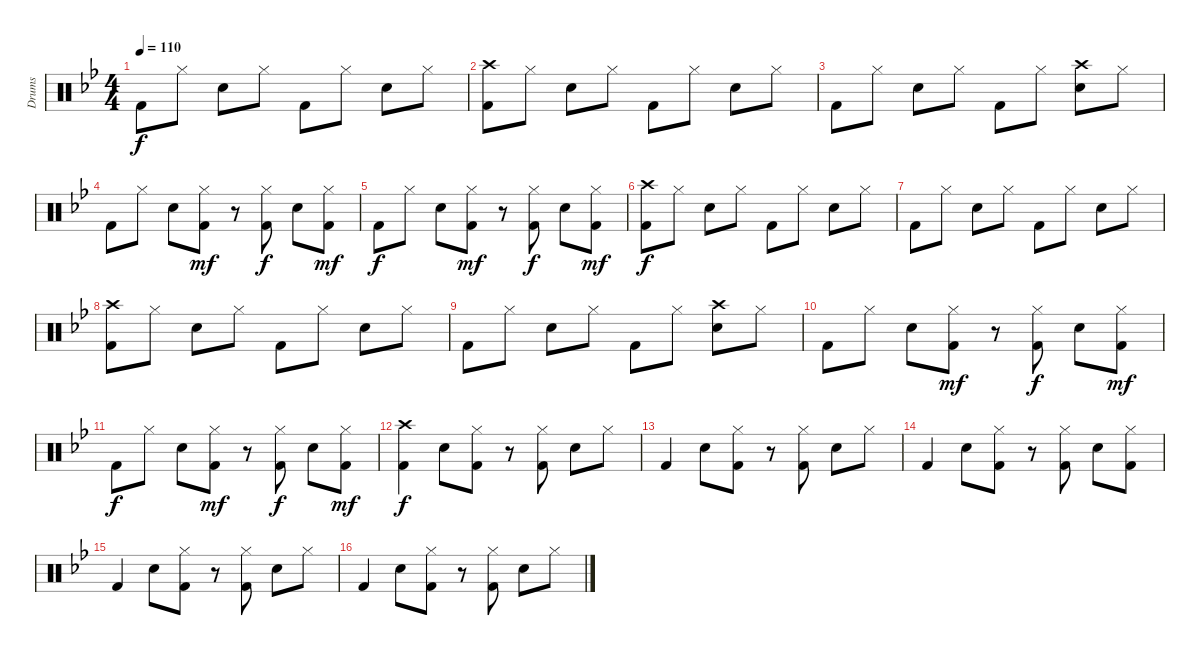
\track ("Drums" "Drums") {instrument percussion}
\staff {score}
\articulation defaults
\ts (4 4)
\tempo 110
\clef neutral
\ks gminor "Kick (hit) 2".8{dy f} "Hi-Hat (closed)".8 "Snare (hit) 2".8 "Hi-Hat (closed)".8 "Kick (hit) 2".8 "Hi-Hat (closed)".8 "Snare (hit) 2".8 "Hi-Hat (closed)".8
|
("Crash high (hit)" "Kick (hit) 2").8 "Hi-Hat (closed)".8 "Snare (hit) 2".8 "Hi-Hat (closed)".8 "Kick (hit) 2".8 "Hi-Hat (closed)".8 "Snare (hit) 2".8 "Hi-Hat (closed)".8 |
"Kick (hit) 2".8 "Hi-Hat (closed)".8 "Snare (hit) 2".8 "Hi-Hat (closed)".8 "Kick (hit) 2".8 "Hi-Hat (closed)".8 ("Crash high (hit)" "Snare (hit) 2").8 "Hi-Hat (closed)".8 |
"Kick (hit) 2".8 "Hi-Hat (closed)".8 "Snare (hit) 2".8 ("Hi-Hat (closed)" "Kick (hit) 2").8{dy mf} r.8 ("Hi-Hat (closed)" "Kick (hit) 2").8{dy f} "Snare (hit) 2".8 ("Hi-Hat (closed)" "Kick (hit) 2").8{dy mf} |
"Kick (hit) 2".8{dy f} "Hi-Hat (closed)".8 "Snare (hit) 2".8 ("Hi-Hat (closed)" "Kick (hit) 2").8{dy mf} r.8 ("Hi-Hat (closed)" "Kick (hit) 2").8{dy f} "Snare (hit) 2".8 ("Hi-Hat (closed)" "Kick (hit) 2").8{dy mf} |
("Crash high (hit)" "Kick (hit) 2").8{dy f} "Hi-Hat (closed)".8 "Snare (hit) 2".8 "Hi-Hat (closed)".8 "Kick (hit) 2".8 "Hi-Hat (closed)".8 "Snare (hit) 2".8 "Hi-Hat (closed)".8 |
"Kick (hit) 2".8 "Hi-Hat (closed)".8 "Snare (hit) 2".8 "Hi-Hat (closed)".8 "Kick (hit) 2".8 "Hi-Hat (closed)".8 "Snare (hit) 2".8 "Hi-Hat (closed)".8 |
("Crash high (hit)" "Kick (hit) 2").8 "Hi-Hat (closed)".8 "Snare (hit) 2".8 "Hi-Hat (closed)".8 "Kick (hit) 2".8 "Hi-Hat (closed)".8 "Snare (hit) 2".8 "Hi-Hat (closed)".8 |
"Kick (hit) 2".8 "Hi-Hat (closed)".8 "Snare (hit) 2".8 "Hi-Hat (closed)".8 "Kick (hit) 2".8 "Hi-Hat (closed)".8 ("Crash high (hit)" "Snare (hit) 2").8 "Hi-Hat (closed)".8 |
"Kick (hit) 2".8 "Hi-Hat (closed)".8 "Snare (hit) 2".8 ("Hi-Hat (closed)" "Kick (hit) 2").8{dy mf} r.8 ("Hi-Hat (closed)" "Kick (hit) 2").8{dy f} "Snare (hit) 2".8 ("Hi-Hat (closed)" "Kick (hit) 2").8{dy mf} |
"Kick (hit) 2".8{dy f} "Hi-Hat (closed)".8 "Snare (hit) 2".8 ("Hi-Hat (closed)" "Kick (hit) 2").8{dy mf} r.8 ("Hi-Hat (closed)" "Kick (hit) 2").8{dy f} "Snare (hit) 2".8 ("Hi-Hat (closed)" "Kick (hit) 2").8{dy mf} |
("Crash high (hit)" "Kick (hit) 2").4{dy f} "Snare (hit) 2".8 ("Hi-Hat (closed)" "Kick (hit) 2").8 r.8 ("Hi-Hat (closed)" "Kick (hit) 2").8 "Snare (hit) 2".8 "Hi-Hat (closed)".8 |
"Kick (hit) 2".4 "Snare (hit) 2".8 ("Hi-Hat (closed)" "Kick (hit) 2").8 r.8 ("Hi-Hat (closed)" "Kick (hit) 2").8 "Snare (hit) 2".8 "Hi-Hat (closed)".8 |
"Kick (hit) 2".4 "Snare (hit) 2".8 ("Hi-Hat (closed)" "Kick (hit) 2").8 r.8 ("Hi-Hat (closed)" "Kick (hit) 2").8 "Snare (hit) 2".8 ("Hi-Hat (closed)" "Kick (hit) 2").8 |
"Kick (hit) 2".4 "Snare (hit) 2".8 ("Hi-Hat (closed)" "Kick (hit) 2").8 r.8 ("Hi-Hat (closed)" "Kick (hit) 2").8 "Snare (hit) 2".8 "Hi-Hat (closed)".8 |
"Kick (hit) 2".4 "Snare (hit) 2".8 ("Hi-Hat (closed)" "Kick (hit) 2").8 r.8 ("Hi-Hat (closed)" "Kick (hit) 2").8 "Snare (hit) 2".8 "Hi-Hat (closed)".8
